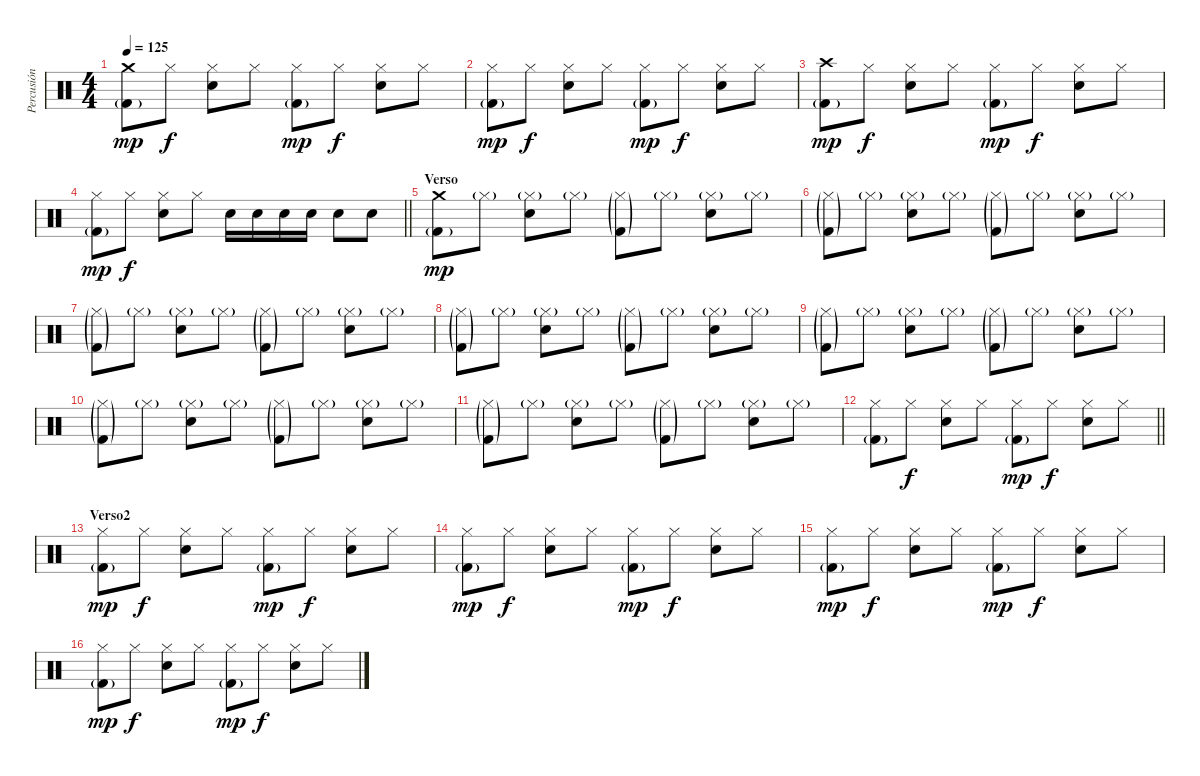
\track ("Percusión" "Percusión") {instrument percussion}
\staff {score}
\articulation defaults
\ts (4 4)
\tempo 125
\clef neutral
\ks c
("Crash medium (hit)" "Kick (hit) 2"{g}).8{dy mp} "Hi-Hat (closed)".8{dy f} ("Hi-Hat (closed)" "Snare (hit) 2").8 "Hi-Hat (closed)".8 ("Hi-Hat (closed)" "Kick (hit) 2"{g}).8{dy mp} "Hi-Hat (closed)".8{dy f} ("Hi-Hat (closed)" "Snare (hit) 2").8 "Hi-Hat (closed)".8 |
("Hi-Hat (closed)" "Kick (hit) 2"{g}).8{dy mp} "Hi-Hat (closed)".8{dy f} ("Hi-Hat (closed)" "Snare (hit) 2").8 "Hi-Hat (closed)".8 ("Hi-Hat (closed)" "Kick (hit) 2"{g}).8{dy mp} "Hi-Hat (closed)".8{dy f} ("Hi-Hat (closed)" "Snare (hit) 2").8 "Hi-Hat (closed)".8 |
("Crash high (hit)" "Kick (hit) 2"{g}).8{dy mp} "Hi-Hat (closed)".8{dy f} ("Hi-Hat (closed)" "Snare (hit) 2").8 "Hi-Hat (closed)".8 ("Hi-Hat (closed)" "Kick (hit) 2"{g}).8{dy mp} "Hi-Hat (closed)".8{dy f} ("Hi-Hat (closed)" "Snare (hit) 2").8 "Hi-Hat (closed)".8 |
\barLineRight lightlight
("Hi-Hat (closed)" "Kick (hit) 2"{g}).8{dy mp} "Hi-Hat (closed)".8{dy f} ("Hi-Hat (closed)" "Snare (hit) 2").8 "Hi-Hat (closed)".8 "Snare (hit) 2".16 "Snare (hit) 2".16 "Snare (hit) 2".16 "Snare (hit) 2".16 "Snare (hit) 2".8 "Snare (hit) 2".8 |
\section ("" "Verso")
("Crash medium (hit)" "Kick (hit) 2"{g}).8{dy mp} "Hi-Hat (closed)"{g}.8 ("Hi-Hat (closed)"{g} "Snare (hit) 2").8 "Hi-Hat (closed)"{g}.8 ("Hi-Hat (closed)"{g} "Kick (hit) 2"{g}).8 "Hi-Hat (closed)"{g}.8 ("Hi-Hat (closed)"{g} "Snare (hit) 2").8 "Hi-Hat (closed)"{g}.8 |
("Hi-Hat (closed)"{g} "Kick (hit) 2"{g}).8 "Hi-Hat (closed)"{g}.8 ("Hi-Hat (closed)"{g} "Snare (hit) 2").8 "Hi-Hat (closed)"{g}.8 ("Hi-Hat (closed)"{g} "Kick (hit) 2"{g}).8 "Hi-Hat (closed)"{g}.8 ("Hi-Hat (closed)"{g} "Snare (hit) 2").8 "Hi-Hat (closed)"{g}.8 |
("Hi-Hat (closed)"{g} "Kick (hit) 2"{g}).8 "Hi-Hat (closed)"{g}.8 ("Hi-Hat (closed)"{g} "Snare (hit) 2").8 "Hi-Hat (closed)"{g}.8 ("Hi-Hat (closed)"{g} "Kick (hit) 2"{g}).8 "Hi-Hat (closed)"{g}.8 ("Hi-Hat (closed)"{g} "Snare (hit) 2").8 "Hi-Hat (closed)"{g}.8 |
("Hi-Hat (closed)"{g} "Kick (hit) 2"{g}).8 "Hi-Hat (closed)"{g}.8 ("Hi-Hat (closed)"{g} "Snare (hit) 2").8 "Hi-Hat (closed)"{g}.8 ("Hi-Hat (closed)"{g} "Kick (hit) 2"{g}).8 "Hi-Hat (closed)"{g}.8 ("Hi-Hat (closed)"{g} "Snare (hit) 2").8 "Hi-Hat (closed)"{g}.8 |
("Hi-Hat (closed)"{g} "Kick (hit) 2"{g}).8 "Hi-Hat (closed)"{g}.8 ("Hi-Hat (closed)"{g} "Snare (hit) 2").8 "Hi-Hat (closed)"{g}.8 ("Hi-Hat (closed)"{g} "Kick (hit) 2"{g}).8 "Hi-Hat (closed)"{g}.8 ("Hi-Hat (closed)"{g} "Snare (hit) 2").8 "Hi-Hat (closed)"{g}.8 |
("Hi-Hat (closed)"{g} "Kick (hit) 2"{g}).8 "Hi-Hat (closed)"{g}.8 ("Hi-Hat (closed)"{g} "Snare (hit) 2").8 "Hi-Hat (closed)"{g}.8 ("Hi-Hat (closed)"{g} "Kick (hit) 2"{g}).8 "Hi-Hat (closed)"{g}.8 ("Hi-Hat (closed)"{g} "Snare (hit) 2").8 "Hi-Hat (closed)"{g}.8 |
("Hi-Hat (closed)"{g} "Kick (hit) 2"{g}).8 "Hi-Hat (closed)"{g}.8 ("Hi-Hat (closed)"{g} "Snare (hit) 2").8 "Hi-Hat (closed)"{g}.8 ("Hi-Hat (closed)"{g} "Kick (hit) 2"{g}).8 "Hi-Hat (closed)"{g}.8 ("Hi-Hat (closed)"{g} "Snare (hit) 2").8 "Hi-Hat (closed)"{g}.8 |
\barLineRight lightlight
("Hi-Hat (closed)" "Kick (hit) 2"{g}).8 "Hi-Hat (closed)".8{dy f} ("Hi-Hat (closed)" "Snare (hit) 2").8 "Hi-Hat (closed)".8 ("Hi-Hat (closed)" "Kick (hit) 2"{g}).8{dy mp} "Hi-Hat (closed)".8{dy f} ("Hi-Hat (closed)" "Snare (hit) 2").8 "Hi-Hat (closed)".8 |
\section ("" "Verso2")
("Hi-Hat (closed)" "Kick (hit) 2"{g}).8{dy mp} "Hi-Hat (closed)".8{dy f} ("Hi-Hat (closed)" "Snare (hit) 2").8 "Hi-Hat (closed)".8 ("Hi-Hat (closed)" "Kick (hit) 2"{g}).8{dy mp} "Hi-Hat (closed)".8{dy f} ("Hi-Hat (closed)" "Snare (hit) 2").8 "Hi-Hat (closed)".8 |
("Hi-Hat (closed)" "Kick (hit) 2"{g}).8{dy mp} "Hi-Hat (closed)".8{dy f} ("Hi-Hat (closed)" "Snare (hit) 2").8 "Hi-Hat (closed)".8 ("Hi-Hat (closed)" "Kick (hit) 2"{g}).8{dy mp} "Hi-Hat (closed)".8{dy f} ("Hi-Hat (closed)" "Snare (hit) 2").8 "Hi-Hat (closed)".8 |
("Hi-Hat (closed)" "Kick (hit) 2"{g}).8{dy mp} "Hi-Hat (closed)".8{dy f} ("Hi-Hat (closed)" "Snare (hit) 2").8 "Hi-Hat (closed)".8 ("Hi-Hat (closed)" "Kick (hit) 2"{g}).8{dy mp} "Hi-Hat (closed)".8{dy f} ("Hi-Hat (closed)" "Snare (hit) 2").8 "Hi-Hat (closed)".8 |
("Hi-Hat (closed)" "Kick (hit) 2"{g}).8{dy mp} "Hi-Hat (closed)".8{dy f} ("Hi-Hat (closed)" "Snare (hit) 2").8 "Hi-Hat (closed)".8 ("Hi-Hat (closed)" "Kick (hit) 2"{g}).8{dy mp} "Hi-Hat (closed)".8{dy f} ("Hi-Hat (closed)" "Snare (hit) 2").8 "Hi-Hat (closed)".8
